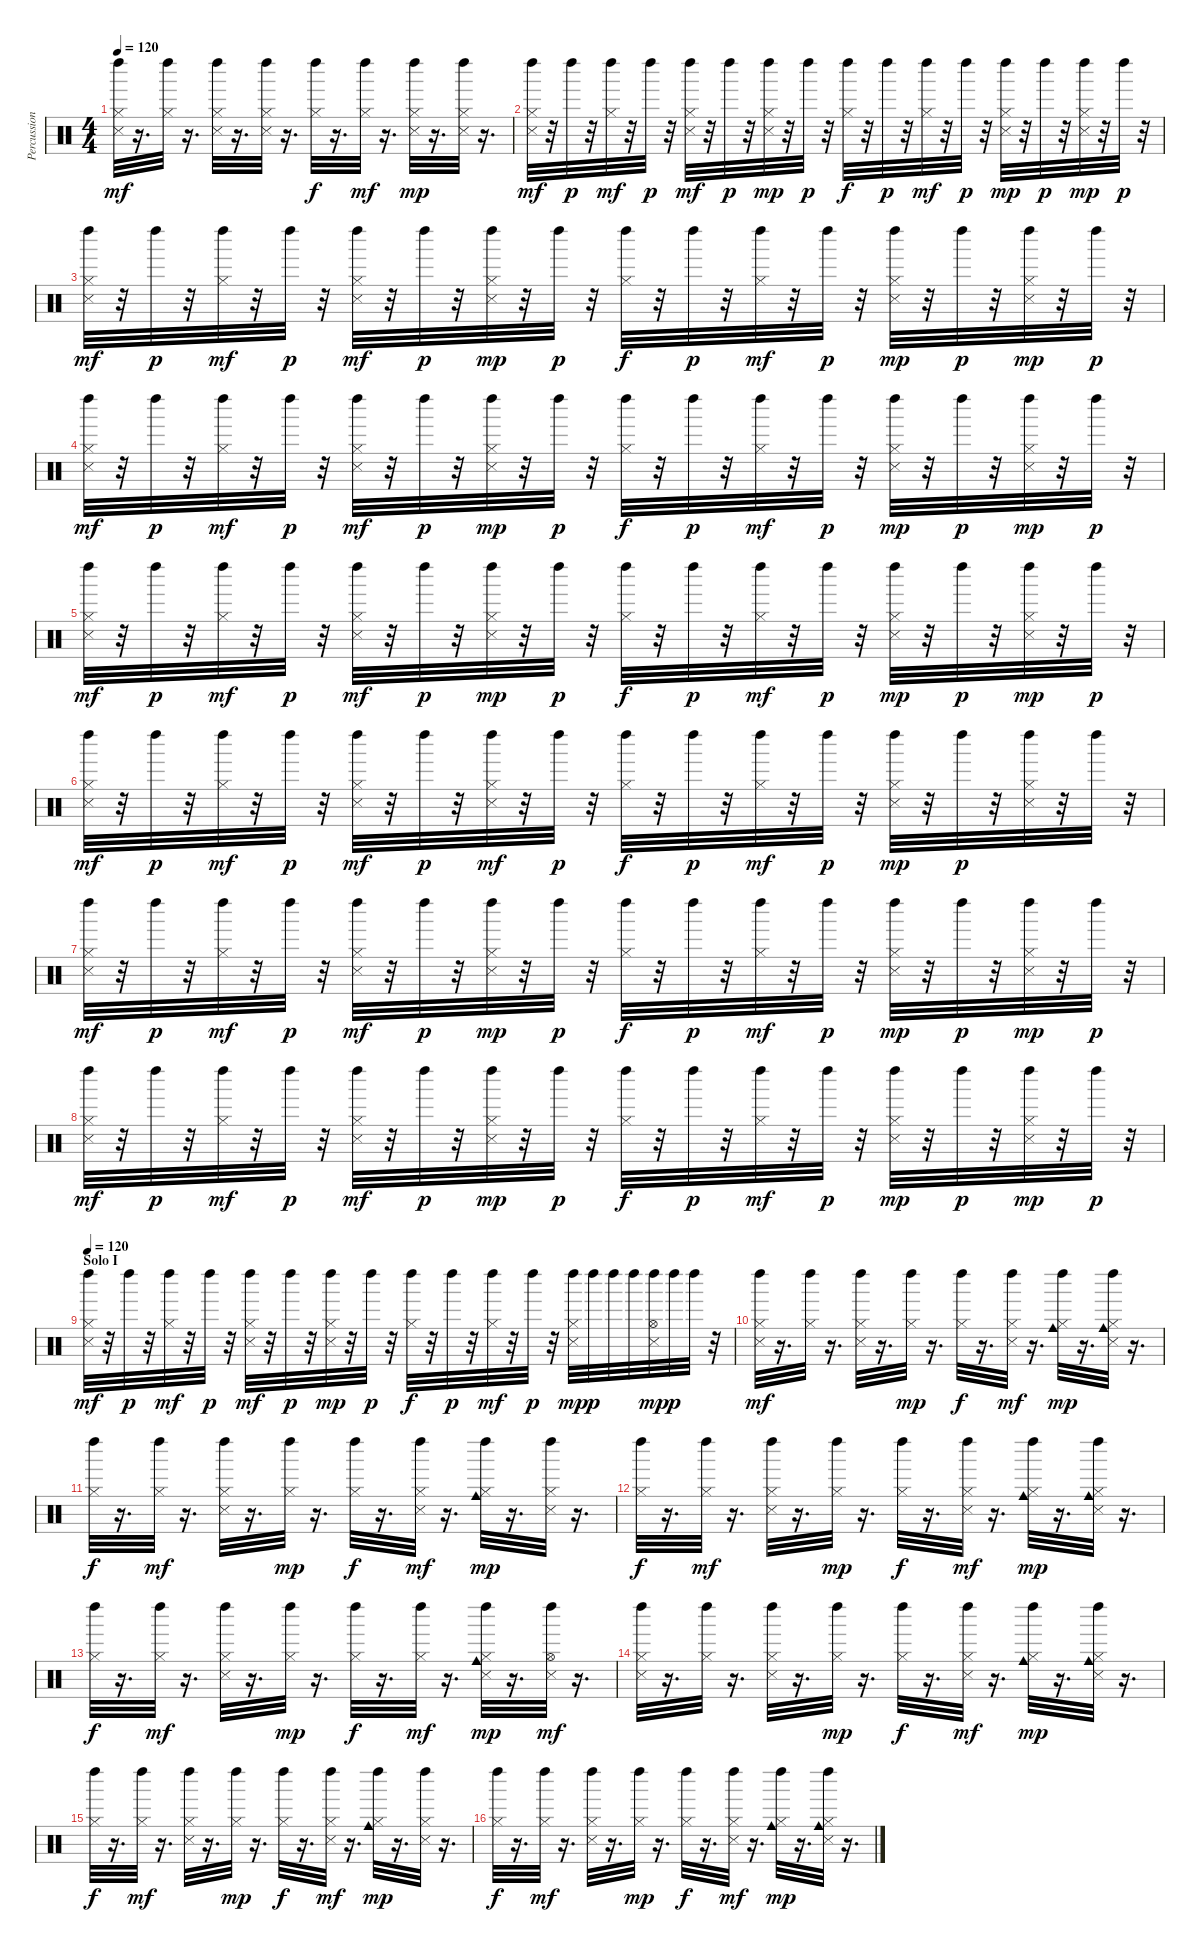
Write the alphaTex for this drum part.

\track ("Percussion" "Percussion") {instrument percussion}
\staff {score}
\articulation defaults
\ts (4 4)
\tempo 120
\clef neutral
\ks c
("Hi-Hat (closed)" "Metronome (hit)" "Left Maraca (hit)").32{dy mf} r.16{d} ("Hi-Hat (closed)" "Left Maraca (hit)").32 r.16{d} ("Snare (side stick) 3" "Hi-Hat (closed)" "Left Maraca (hit)").32 r.16{d} ("Hi-Hat (closed)" "Left Maraca (hit)" "Metronome (hit)").32 r.16{d} ("Hi-Hat (closed)" "Left Maraca (hit)").32{dy f} r.16{d} ("Hi-Hat (closed)" "Left Maraca (hit)").32{dy mf} r.16{d} ("Hi-Hat (closed)" "Snare (side stick) 3" "Left Maraca (hit)").32{dy mp} r.16{d} ("Hi-Hat (closed)" "Metronome (hit)" "Left Maraca (hit)").32 r.16{d} |
("Hi-Hat (closed)" "Metronome (hit)" "Left Maraca (hit)").32{dy mf} r.32 "Left Maraca (hit)".32{dy p} r.32 ("Hi-Hat (closed)" "Left Maraca (hit)").32{dy mf} r.32 "Left Maraca (hit)".32{dy p} r.32 ("Hi-Hat (closed)" "Snare (side stick) 3" "Left Maraca (hit)").32{dy mf} r.32 "Left Maraca (hit)".32{dy p} r.32 ("Hi-Hat (closed)" "Metronome (hit)" "Left Maraca (hit)").32{dy mp} r.32 "Left Maraca (hit)".32{dy p} r.32 ("Hi-Hat (closed)" "Left Maraca (hit)").32{dy f} r.32 "Left Maraca (hit)".32{dy p} r.32 ("Hi-Hat (closed)" "Left Maraca (hit)").32{dy mf} r.32 "Left Maraca (hit)".32{dy p} r.32 ("Hi-Hat (closed)" "Snare (side stick) 3" "Left Maraca (hit)").32{dy mp} r.32 "Left Maraca (hit)".32{dy p} r.32 ("Hi-Hat (closed)" "Metronome (hit)" "Left Maraca (hit)").32{dy mp} r.32 "Left Maraca (hit)".32{dy p} r.32 |
("Hi-Hat (closed)" "Metronome (hit)" "Left Maraca (hit)").32{dy mf} r.32 "Left Maraca (hit)".32{dy p} r.32 ("Hi-Hat (closed)" "Left Maraca (hit)").32{dy mf} r.32 "Left Maraca (hit)".32{dy p} r.32 ("Hi-Hat (closed)" "Snare (side stick) 3" "Left Maraca (hit)").32{dy mf} r.32 "Left Maraca (hit)".32{dy p} r.32 ("Hi-Hat (closed)" "Metronome (hit)" "Left Maraca (hit)").32{dy mp} r.32 "Left Maraca (hit)".32{dy p} r.32 ("Hi-Hat (closed)" "Left Maraca (hit)").32{dy f} r.32 "Left Maraca (hit)".32{dy p} r.32 ("Hi-Hat (closed)" "Left Maraca (hit)").32{dy mf} r.32 "Left Maraca (hit)".32{dy p} r.32 ("Hi-Hat (closed)" "Snare (side stick) 3" "Left Maraca (hit)").32{dy mp} r.32 "Left Maraca (hit)".32{dy p} r.32 ("Hi-Hat (closed)" "Metronome (hit)" "Left Maraca (hit)").32{dy mp} r.32 "Left Maraca (hit)".32{dy p} r.32 |
("Metronome (hit)" "Hi-Hat (closed)" "Left Maraca (hit)").32{dy mf} r.32 "Left Maraca (hit)".32{dy p} r.32 ("Hi-Hat (closed)" "Left Maraca (hit)").32{dy mf} r.32 "Left Maraca (hit)".32{dy p} r.32 ("Hi-Hat (closed)" "Snare (side stick) 3" "Left Maraca (hit)").32{dy mf} r.32 "Left Maraca (hit)".32{dy p} r.32 ("Metronome (hit)" "Hi-Hat (closed)" "Left Maraca (hit)").32{dy mp} r.32 "Left Maraca (hit)".32{dy p} r.32 ("Hi-Hat (closed)" "Left Maraca (hit)").32{dy f} r.32 "Left Maraca (hit)".32{dy p} r.32 ("Hi-Hat (closed)" "Left Maraca (hit)").32{dy mf} r.32 "Left Maraca (hit)".32{dy p} r.32 ("Snare (side stick) 3" "Hi-Hat (closed)" "Left Maraca (hit)").32{dy mp} r.32 "Left Maraca (hit)".32{dy p} r.32 ("Metronome (hit)" "Hi-Hat (closed)" "Left Maraca (hit)").32{dy mp} r.32 "Left Maraca (hit)".32{dy p} r.32 |
("Metronome (hit)" "Hi-Hat (closed)" "Left Maraca (hit)").32{dy mf} r.32 "Left Maraca (hit)".32{dy p} r.32 ("Hi-Hat (closed)" "Left Maraca (hit)").32{dy mf} r.32 "Left Maraca (hit)".32{dy p} r.32 ("Snare (side stick) 3" "Hi-Hat (closed)" "Left Maraca (hit)").32{dy mf} r.32 "Left Maraca (hit)".32{dy p} r.32 ("Metronome (hit)" "Hi-Hat (closed)" "Left Maraca (hit)").32{dy mp} r.32 "Left Maraca (hit)".32{dy p} r.32 ("Hi-Hat (closed)" "Left Maraca (hit)").32{dy f} r.32 "Left Maraca (hit)".32{dy p} r.32 ("Hi-Hat (closed)" "Left Maraca (hit)").32{dy mf} r.32 "Left Maraca (hit)".32{dy p} r.32 ("Snare (side stick) 3" "Hi-Hat (closed)" "Left Maraca (hit)").32{dy mp} r.32 "Left Maraca (hit)".32{dy p} r.32 ("Metronome (hit)" "Hi-Hat (closed)" "Left Maraca (hit)").32{dy mp} r.32 "Left Maraca (hit)".32{dy p} r.32 |
("Hi-Hat (closed)" "Left Maraca (hit)" "Metronome (hit)").32{dy mf} r.32 "Left Maraca (hit)".32{dy p} r.32 ("Hi-Hat (closed)" "Left Maraca (hit)").32{dy mf} r.32 "Left Maraca (hit)".32{dy p} r.32 ("Hi-Hat (closed)" "Snare (side stick) 3" "Left Maraca (hit)").32{dy mf} r.32 "Left Maraca (hit)".32{dy p} r.32 ("Hi-Hat (closed)" "Left Maraca (hit)" "Metronome (hit)").32{dy mf} r.32 "Left Maraca (hit)".32{dy p} r.32 ("Hi-Hat (closed)" "Left Maraca (hit)").32{dy f} r.32 "Left Maraca (hit)".32{dy p} r.32 ("Hi-Hat (closed)" "Left Maraca (hit)").32{dy mf} r.32 "Left Maraca (hit)".32{dy p} r.32 ("Hi-Hat (closed)" "Left Maraca (hit)" "Snare (side stick) 3").32{dy mp} r.32 "Left Maraca (hit)".32{dy p} r.32 ("Hi-Hat (closed)" "Left Maraca (hit)" "Metronome (hit)").32 r.32 "Left Maraca (hit)".32 r.32 |
("Hi-Hat (closed)" "Metronome (hit)" "Left Maraca (hit)").32{dy mf} r.32 "Left Maraca (hit)".32{dy p} r.32 ("Hi-Hat (closed)" "Left Maraca (hit)").32{dy mf} r.32 "Left Maraca (hit)".32{dy p} r.32 ("Snare (side stick) 3" "Hi-Hat (closed)" "Left Maraca (hit)").32{dy mf} r.32 "Left Maraca (hit)".32{dy p} r.32 ("Hi-Hat (closed)" "Metronome (hit)" "Left Maraca (hit)").32{dy mp} r.32 "Left Maraca (hit)".32{dy p} r.32 ("Hi-Hat (closed)" "Left Maraca (hit)").32{dy f} r.32 "Left Maraca (hit)".32{dy p} r.32 ("Hi-Hat (closed)" "Left Maraca (hit)").32{dy mf} r.32 "Left Maraca (hit)".32{dy p} r.32 ("Hi-Hat (closed)" "Snare (side stick) 3" "Left Maraca (hit)").32{dy mp} r.32 "Left Maraca (hit)".32{dy p} r.32 ("Hi-Hat (closed)" "Metronome (hit)" "Left Maraca (hit)").32{dy mp} r.32 "Left Maraca (hit)".32{dy p} r.32 |
("Left Maraca (hit)" "Metronome (hit)" "Hi-Hat (closed)").32{dy mf} r.32 "Left Maraca (hit)".32{dy p} r.32 ("Left Maraca (hit)" "Hi-Hat (closed)").32{dy mf} r.32 "Left Maraca (hit)".32{dy p} r.32 ("Left Maraca (hit)" "Hi-Hat (closed)" "Snare (side stick) 3").32{dy mf} r.32 "Left Maraca (hit)".32{dy p} r.32 ("Left Maraca (hit)" "Metronome (hit)" "Hi-Hat (closed)").32{dy mp} r.32 "Left Maraca (hit)".32{dy p} r.32 ("Left Maraca (hit)" "Hi-Hat (closed)").32{dy f} r.32 "Left Maraca (hit)".32{dy p} r.32 ("Left Maraca (hit)" "Hi-Hat (closed)").32{dy mf} r.32 "Left Maraca (hit)".32{dy p} r.32 ("Left Maraca (hit)" "Snare (side stick) 3" "Hi-Hat (closed)").32{dy mp} r.32 "Left Maraca (hit)".32{dy p} r.32 ("Left Maraca (hit)" "Metronome (hit)" "Hi-Hat (closed)").32{dy mp} r.32 "Left Maraca (hit)".32{dy p} r.32 |
\section ("" "Solo I")
\tempo 120
("Metronome (hit)" "Hi-Hat (closed)" "Left Maraca (hit)").32{dy mf} r.32 "Left Maraca (hit)".32{dy p} r.32 ("Hi-Hat (closed)" "Left Maraca (hit)").32{dy mf} r.32 "Left Maraca (hit)".32{dy p} r.32 ("Snare (side stick) 3" "Hi-Hat (closed)" "Left Maraca (hit)").32{dy mf} r.32 "Left Maraca (hit)".32{dy p} r.32 ("Metronome (hit)" "Hi-Hat (closed)" "Left Maraca (hit)").32{dy mp} r.32 "Left Maraca (hit)".32{dy p} r.32 ("Hi-Hat (closed)" "Left Maraca (hit)").32{dy f} r.32 "Left Maraca (hit)".32{dy p} r.32 ("Hi-Hat (closed)" "Left Maraca (hit)").32{dy mf} r.32 "Left Maraca (hit)".32{dy p} r.32 ("Snare (side stick) 3" "Hi-Hat (closed)" "Left Maraca (hit)").32{dy mp} "Left Maraca (hit)".32{dy p} "Left Maraca (hit)".32 "Left Maraca (hit)".32 ("Metronome (hit)" "Hi-Hat (open)" "Left Maraca (hit)").32{dy mp} "Left Maraca (hit)".32{dy p} "Left Maraca (hit)".32 r.32 |
("Left Maraca (hit)" "Metronome (hit)" "Hi-Hat (closed)").32{dy mf} r.16{d} ("Hi-Hat (closed)" "Left Maraca (hit)").32 r.16{d} ("Snare (side stick) 3" "Hi-Hat (closed)" "Left Maraca (hit)").32 r.16{d} ("Left Maraca (hit)" "Hi-Hat (closed)").32{dy mp} r.16{d} ("Left Maraca (hit)" "Hi-Hat (closed)").32{dy f} r.16{d} ("Metronome (hit)" "Left Maraca (hit)" "Hi-Hat (closed)").32{dy mf} r.16{d} ("Cowbell medium (hit)" "Hi-Hat (closed)" "Left Maraca (hit)").32{dy mp} r.16{d} ("Cowbell medium (hit)" "Hi-Hat (closed)" "Metronome (hit)" "Left Maraca (hit)").32 r.16{d} |
("Hi-Hat (closed)" "Left Maraca (hit)").32{dy f} r.16{d} ("Hi-Hat (closed)" "Left Maraca (hit)").32{dy mf} r.16{d} ("Snare (side stick) 3" "Hi-Hat (closed)" "Left Maraca (hit)").32 r.16{d} ("Hi-Hat (closed)" "Left Maraca (hit)").32{dy mp} r.16{d} ("Hi-Hat (closed)" "Left Maraca (hit)").32{dy f} r.16{d} ("Metronome (hit)" "Hi-Hat (closed)" "Left Maraca (hit)").32{dy mf} r.16{d} ("Cowbell medium (hit)" "Hi-Hat (closed)" "Left Maraca (hit)").32{dy mp} r.16{d} ("Metronome (hit)" "Hi-Hat (closed)" "Left Maraca (hit)").32 r.16{d} |
("Hi-Hat (closed)" "Left Maraca (hit)").32{dy f} r.16{d} ("Hi-Hat (closed)" "Left Maraca (hit)").32{dy mf} r.16{d} ("Hi-Hat (closed)" "Left Maraca (hit)" "Snare (side stick) 3").32 r.16{d} ("Hi-Hat (closed)" "Left Maraca (hit)").32{dy mp} r.16{d} ("Hi-Hat (closed)" "Left Maraca (hit)").32{dy f} r.16{d} ("Metronome (hit)" "Hi-Hat (closed)" "Left Maraca (hit)").32{dy mf} r.16{d} ("Hi-Hat (closed)" "Left Maraca (hit)" "Cowbell medium (hit)").32{dy mp} r.16{d} ("Metronome (hit)" "Hi-Hat (closed)" "Left Maraca (hit)" "Cowbell medium (hit)").32 r.16{d} |
("Left Maraca (hit)" "Hi-Hat (closed)").32{dy f} r.16{d} ("Left Maraca (hit)" "Hi-Hat (closed)").32{dy mf} r.16{d} ("Snare (side stick) 3" "Left Maraca (hit)" "Hi-Hat (closed)").32 r.16{d} ("Left Maraca (hit)" "Hi-Hat (closed)").32{dy mp} r.16{d} ("Left Maraca (hit)" "Hi-Hat (closed)").32{dy f} r.16{d} ("Left Maraca (hit)" "Hi-Hat (closed)").32{dy mf} r.16{d} ("Metronome (hit)" "Cowbell medium (hit)" "Left Maraca (hit)" "Hi-Hat (closed)").32{dy mp} r.16{d} ("Metronome (hit)" "Left Maraca (hit)" "Hi-Hat (open)").32{dy mf} r.16{d} |
("Metronome (hit)" "Left Maraca (hit)" "Hi-Hat (closed)").32 r.16{d} ("Left Maraca (hit)" "Hi-Hat (closed)").32 r.16{d} ("Left Maraca (hit)" "Snare (side stick) 3" "Hi-Hat (closed)").32 r.16{d} ("Left Maraca (hit)" "Hi-Hat (closed)").32{dy mp} r.16{d} ("Left Maraca (hit)" "Hi-Hat (closed)").32{dy f} r.16{d} ("Metronome (hit)" "Left Maraca (hit)" "Hi-Hat (closed)").32{dy mf} r.16{d} ("Left Maraca (hit)" "Cowbell medium (hit)" "Hi-Hat (closed)").32{dy mp} r.16{d} ("Metronome (hit)" "Cowbell medium (hit)" "Left Maraca (hit)" "Hi-Hat (closed)").32 r.16{d} |
("Left Maraca (hit)" "Hi-Hat (closed)").32{dy f} r.16{d} ("Left Maraca (hit)" "Hi-Hat (closed)").32{dy mf} r.16{d} ("Left Maraca (hit)" "Hi-Hat (closed)" "Snare (side stick) 3").32 r.16{d} ("Left Maraca (hit)" "Hi-Hat (closed)").32{dy mp} r.16{d} ("Left Maraca (hit)" "Hi-Hat (closed)").32{dy f} r.16{d} ("Metronome (hit)" "Left Maraca (hit)" "Hi-Hat (closed)").32{dy mf} r.16{d} ("Left Maraca (hit)" "Hi-Hat (closed)" "Cowbell medium (hit)").32{dy mp} r.16{d} ("Metronome (hit)" "Left Maraca (hit)" "Hi-Hat (closed)").32 r.16{d} |
("Left Maraca (hit)" "Hi-Hat (closed)").32{dy f} r.16{d} ("Left Maraca (hit)" "Hi-Hat (closed)").32{dy mf} r.16{d} ("Left Maraca (hit)" "Hi-Hat (closed)" "Snare (side stick) 3").32 r.16{d} ("Left Maraca (hit)" "Hi-Hat (closed)").32{dy mp} r.16{d} ("Left Maraca (hit)" "Hi-Hat (closed)").32{dy f} r.16{d} ("Metronome (hit)" "Left Maraca (hit)" "Hi-Hat (closed)").32{dy mf} r.16{d} ("Left Maraca (hit)" "Hi-Hat (closed)" "Cowbell medium (hit)").32{dy mp} r.16{d} ("Metronome (hit)" "Left Maraca (hit)" "Hi-Hat (closed)" "Cowbell medium (hit)").32 r.16{d}
